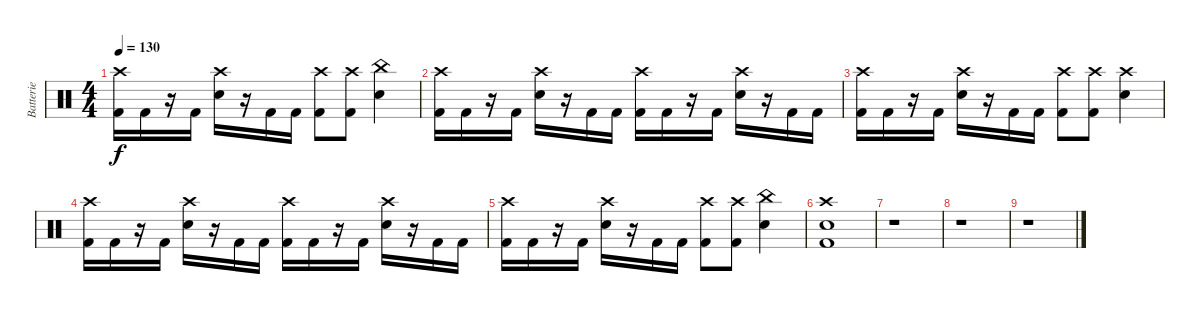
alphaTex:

\track ("Batterie" "Batterie") {instrument percussion}
\staff {score}
\articulation defaults
\ts (4 4)
\tempo 130
\clef neutral
\ks c
("Crash high (hit)" "Kick (hit) 2").16{dy f} "Kick (hit) 2".16 r.16 "Kick (hit) 2".16 ("Crash high (hit)" "Electric Snare (hit)").16 r.16 "Kick (hit) 2".16 "Kick (hit) 2".16 ("Crash high (hit)" "Kick (hit) 2").8 ("Crash high (hit)" "Kick (hit) 2").8 ("China (hit)" "Electric Snare (hit)").4 |
("Crash high (hit)" "Kick (hit) 2").16 "Kick (hit) 2".16 r.16 "Kick (hit) 2".16 ("Crash high (hit)" "Electric Snare (hit)").16 r.16 "Kick (hit) 2".16 "Kick (hit) 2".16 ("Crash high (hit)" "Kick (hit) 2").16 "Kick (hit) 2".16 r.16 "Kick (hit) 2".16 ("Crash high (hit)" "Electric Snare (hit)").16 r.16 "Kick (hit) 2".16 "Kick (hit) 2".16 |
("Crash high (hit)" "Kick (hit) 2").16 "Kick (hit) 2".16 r.16 "Kick (hit) 2".16 ("Crash high (hit)" "Electric Snare (hit)").16 r.16 "Kick (hit) 2".16 "Kick (hit) 2".16 ("Crash high (hit)" "Kick (hit) 2").8 ("Crash high (hit)" "Kick (hit) 2").8 ("Crash high (hit)" "Electric Snare (hit)").4 |
("Crash high (hit)" "Kick (hit) 2").16 "Kick (hit) 2".16 r.16 "Kick (hit) 2".16 ("Crash high (hit)" "Electric Snare (hit)").16 r.16 "Kick (hit) 2".16 "Kick (hit) 2".16 ("Crash high (hit)" "Kick (hit) 2").16 "Kick (hit) 2".16 r.16 "Kick (hit) 2".16 ("Crash high (hit)" "Electric Snare (hit)").16 r.16 "Kick (hit) 2".16 "Kick (hit) 2".16 |
("Crash high (hit)" "Kick (hit) 2").16 "Kick (hit) 2".16 r.16 "Kick (hit) 2".16 ("Crash high (hit)" "Electric Snare (hit)").16 r.16 "Kick (hit) 2".16 "Kick (hit) 2".16 ("Crash high (hit)" "Kick (hit) 2").8 ("Crash high (hit)" "Kick (hit) 2").8 ("China (hit)" "Electric Snare (hit)").4 |
("Crash high (hit)" "Electric Snare (hit)" "Kick (hit) 2").1 |
r.1 |
r.1 |
r.1
